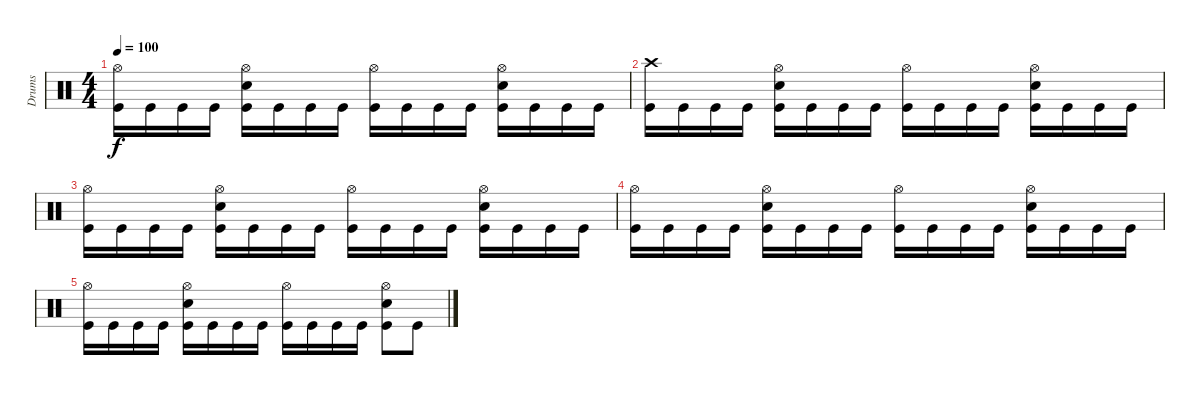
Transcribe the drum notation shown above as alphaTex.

\track ("Drums" "Drums") {instrument percussion}
\staff {score}
\articulation defaults
\ts (4 4)
\tempo 100
\clef neutral
\ks c
("Hi-Hat (open)" "Kick (hit)").16{dy f} "Kick (hit)".16 "Kick (hit)".16 "Kick (hit)".16 ("Hi-Hat (open)" "Snare (hit) 2" "Kick (hit)").16 "Kick (hit)".16 "Kick (hit)".16 "Kick (hit)".16 ("Hi-Hat (open)" "Kick (hit)").16 "Kick (hit)".16 "Kick (hit)".16 "Kick (hit)".16 ("Hi-Hat (open)" "Snare (hit) 2" "Kick (hit)").16 "Kick (hit)".16 "Kick (hit)".16 "Kick (hit)".16 |
("Crash high (hit)" "Kick (hit)").16 "Kick (hit)".16 "Kick (hit)".16 "Kick (hit)".16 ("Hi-Hat (open)" "Snare (hit) 2" "Kick (hit)").16 "Kick (hit)".16 "Kick (hit)".16 "Kick (hit)".16 ("Hi-Hat (open)" "Kick (hit)").16 "Kick (hit)".16 "Kick (hit)".16 "Kick (hit)".16 ("Hi-Hat (open)" "Snare (hit) 2" "Kick (hit)").16 "Kick (hit)".16 "Kick (hit)".16 "Kick (hit)".16 |
("Hi-Hat (open)" "Kick (hit)").16 "Kick (hit)".16 "Kick (hit)".16 "Kick (hit)".16 ("Hi-Hat (open)" "Snare (hit) 2" "Kick (hit)").16 "Kick (hit)".16 "Kick (hit)".16 "Kick (hit)".16 ("Hi-Hat (open)" "Kick (hit)").16 "Kick (hit)".16 "Kick (hit)".16 "Kick (hit)".16 ("Hi-Hat (open)" "Snare (hit) 2" "Kick (hit)").16 "Kick (hit)".16 "Kick (hit)".16 "Kick (hit)".16 |
("Hi-Hat (open)" "Kick (hit)").16 "Kick (hit)".16 "Kick (hit)".16 "Kick (hit)".16 ("Hi-Hat (open)" "Snare (hit) 2" "Kick (hit)").16 "Kick (hit)".16 "Kick (hit)".16 "Kick (hit)".16 ("Hi-Hat (open)" "Kick (hit)").16 "Kick (hit)".16 "Kick (hit)".16 "Kick (hit)".16 ("Hi-Hat (open)" "Snare (hit) 2" "Kick (hit)").16 "Kick (hit)".16 "Kick (hit)".16 "Kick (hit)".16 |
("Hi-Hat (open)" "Kick (hit)").16 "Kick (hit)".16 "Kick (hit)".16 "Kick (hit)".16 ("Hi-Hat (open)" "Snare (hit) 2" "Kick (hit)").16 "Kick (hit)".16 "Kick (hit)".16 "Kick (hit)".16 ("Hi-Hat (open)" "Kick (hit)").16 "Kick (hit)".16 "Kick (hit)".16 "Kick (hit)".16 ("Hi-Hat (open)" "Snare (hit) 2" "Kick (hit)").8 "Kick (hit)".8
